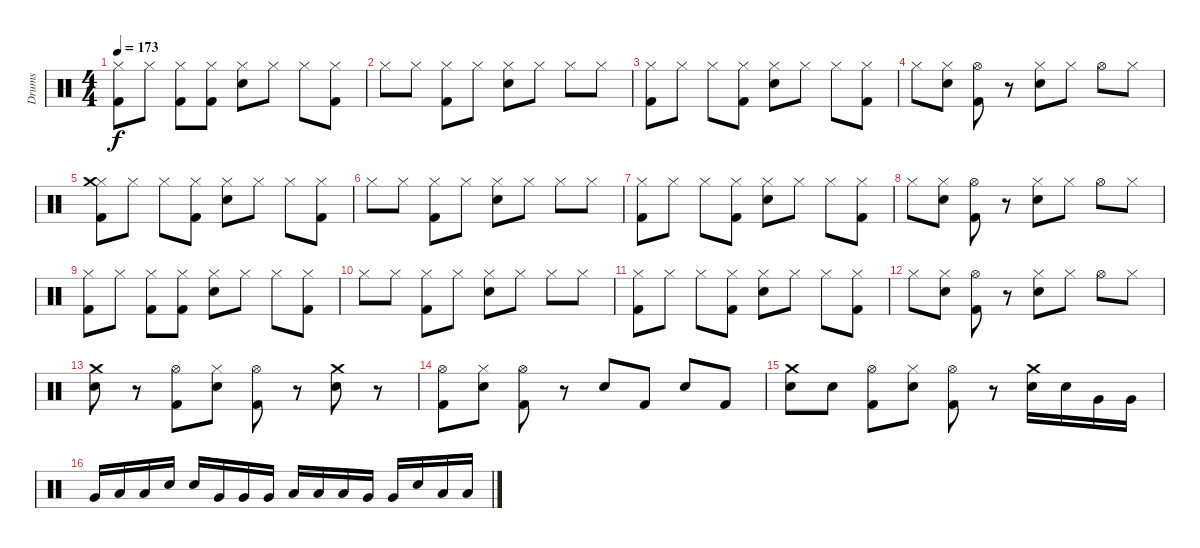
\track ("Drums" "Drums") {instrument percussion}
\staff {score}
\articulation defaults
\ts (4 4)
\tempo 173
\clef neutral
\ks c
("Hi-Hat (closed)" "Kick (hit) 2").8{dy f} "Hi-Hat (closed)".8 ("Hi-Hat (closed)" "Kick (hit) 2").8 ("Hi-Hat (closed)" "Kick (hit) 2").8 ("Hi-Hat (closed)" "Electric Snare (hit)").8 "Hi-Hat (closed)".8 "Hi-Hat (closed)".8 ("Hi-Hat (closed)" "Kick (hit) 2").8 |
"Hi-Hat (closed)".8 "Hi-Hat (closed)".8 ("Hi-Hat (closed)" "Kick (hit) 2").8 "Hi-Hat (closed)".8 ("Hi-Hat (closed)" "Electric Snare (hit)").8 "Hi-Hat (closed)".8 "Hi-Hat (closed)".8 "Hi-Hat (closed)".8 |
("Hi-Hat (closed)" "Kick (hit) 2").8 "Hi-Hat (closed)".8 "Hi-Hat (closed)".8 ("Hi-Hat (closed)" "Kick (hit) 2").8 ("Hi-Hat (closed)" "Electric Snare (hit)").8 "Hi-Hat (closed)".8 "Hi-Hat (closed)".8 ("Hi-Hat (closed)" "Kick (hit) 2").8 |
"Hi-Hat (closed)".8 ("Hi-Hat (closed)" "Electric Snare (hit)").8 ("Hi-Hat (open)" "Kick (hit) 2").8 r.8 ("Hi-Hat (closed)" "Electric Snare (hit)").8 "Hi-Hat (closed)".8 "Hi-Hat (open)".8 "Hi-Hat (closed)".8 |
("Hi-Hat (closed)" "Kick (hit) 2" "Crash medium (hit)").8 "Hi-Hat (closed)".8 "Hi-Hat (closed)".8 ("Hi-Hat (closed)" "Kick (hit) 2").8 ("Hi-Hat (closed)" "Electric Snare (hit)").8 "Hi-Hat (closed)".8 "Hi-Hat (closed)".8 ("Hi-Hat (closed)" "Kick (hit) 2").8 |
"Hi-Hat (closed)".8 "Hi-Hat (closed)".8 ("Hi-Hat (closed)" "Kick (hit) 2").8 "Hi-Hat (closed)".8 ("Hi-Hat (closed)" "Electric Snare (hit)").8 "Hi-Hat (closed)".8 "Hi-Hat (closed)".8 "Hi-Hat (closed)".8 |
("Hi-Hat (closed)" "Kick (hit) 2").8 "Hi-Hat (closed)".8 "Hi-Hat (closed)".8 ("Hi-Hat (closed)" "Kick (hit) 2").8 ("Hi-Hat (closed)" "Electric Snare (hit)").8 "Hi-Hat (closed)".8 "Hi-Hat (closed)".8 ("Hi-Hat (closed)" "Kick (hit) 2").8 |
"Hi-Hat (closed)".8 ("Hi-Hat (closed)" "Electric Snare (hit)").8 ("Hi-Hat (open)" "Kick (hit) 2").8 r.8 ("Hi-Hat (closed)" "Electric Snare (hit)").8 "Hi-Hat (closed)".8 "Hi-Hat (open)".8 "Hi-Hat (closed)".8 |
("Hi-Hat (closed)" "Kick (hit) 2").8 "Hi-Hat (closed)".8 ("Hi-Hat (closed)" "Kick (hit) 2").8 ("Hi-Hat (closed)" "Kick (hit) 2").8 ("Hi-Hat (closed)" "Electric Snare (hit)").8 "Hi-Hat (closed)".8 "Hi-Hat (closed)".8 ("Hi-Hat (closed)" "Kick (hit) 2").8 |
"Hi-Hat (closed)".8 "Hi-Hat (closed)".8 ("Hi-Hat (closed)" "Kick (hit) 2").8 "Hi-Hat (closed)".8 ("Hi-Hat (closed)" "Electric Snare (hit)").8 "Hi-Hat (closed)".8 "Hi-Hat (closed)".8 "Hi-Hat (closed)".8 |
("Hi-Hat (closed)" "Kick (hit) 2").8 "Hi-Hat (closed)".8 "Hi-Hat (closed)".8 ("Hi-Hat (closed)" "Kick (hit) 2").8 ("Hi-Hat (closed)" "Electric Snare (hit)").8 "Hi-Hat (closed)".8 "Hi-Hat (closed)".8 ("Hi-Hat (closed)" "Kick (hit) 2").8 |
"Hi-Hat (closed)".8 ("Hi-Hat (closed)" "Electric Snare (hit)").8 ("Hi-Hat (open)" "Kick (hit) 2").8 r.8 ("Hi-Hat (closed)" "Electric Snare (hit)").8 "Hi-Hat (closed)".8 "Hi-Hat (open)".8 "Hi-Hat (closed)".8 |
("Electric Snare (hit)" "Crash medium (hit)").8 r.8 ("Hi-Hat (open)" "Kick (hit) 2").8 ("Hi-Hat (closed)" "Electric Snare (hit)").8 ("Hi-Hat (open)" "Kick (hit) 2").8 r.8 ("Electric Snare (hit)" "Crash medium (hit)").8 r.8 |
("Hi-Hat (open)" "Kick (hit) 2").8 ("Hi-Hat (closed)" "Electric Snare (hit)").8 ("Hi-Hat (open)" "Kick (hit) 2").8 r.8 "Electric Snare (hit)".8 "Kick (hit) 2".8 "Electric Snare (hit)".8 "Kick (hit) 2".8 |
("Electric Snare (hit)" "Crash medium (hit)").8 "Electric Snare (hit)".8 ("Hi-Hat (open)" "Kick (hit) 2").8 ("Hi-Hat (closed)" "Electric Snare (hit)").8 ("Hi-Hat (open)" "Kick (hit) 2").8 r.8 ("Electric Snare (hit)" "Crash medium (hit)").16 "Electric Snare (hit)".16 "Very Low Tom (hit)".16 "Very Low Tom (hit)".16 |
"Very Low Tom (hit)".16 "Low Floor Tom (hit)".16 "Low Floor Tom (hit)".16 "Electric Snare (hit)".16 "Electric Snare (hit)".16 "Very Low Tom (hit)".16 "Very Low Tom (hit)".16 "Very Low Tom (hit)".16 "Low Floor Tom (hit)".16 "Low Floor Tom (hit)".16 "Low Floor Tom (hit)".16 "Very Low Tom (hit)".16 "Very Low Tom (hit)".16 "Snare (hit)".16 "Low Floor Tom (hit)".16 "Low Floor Tom (hit)".16
